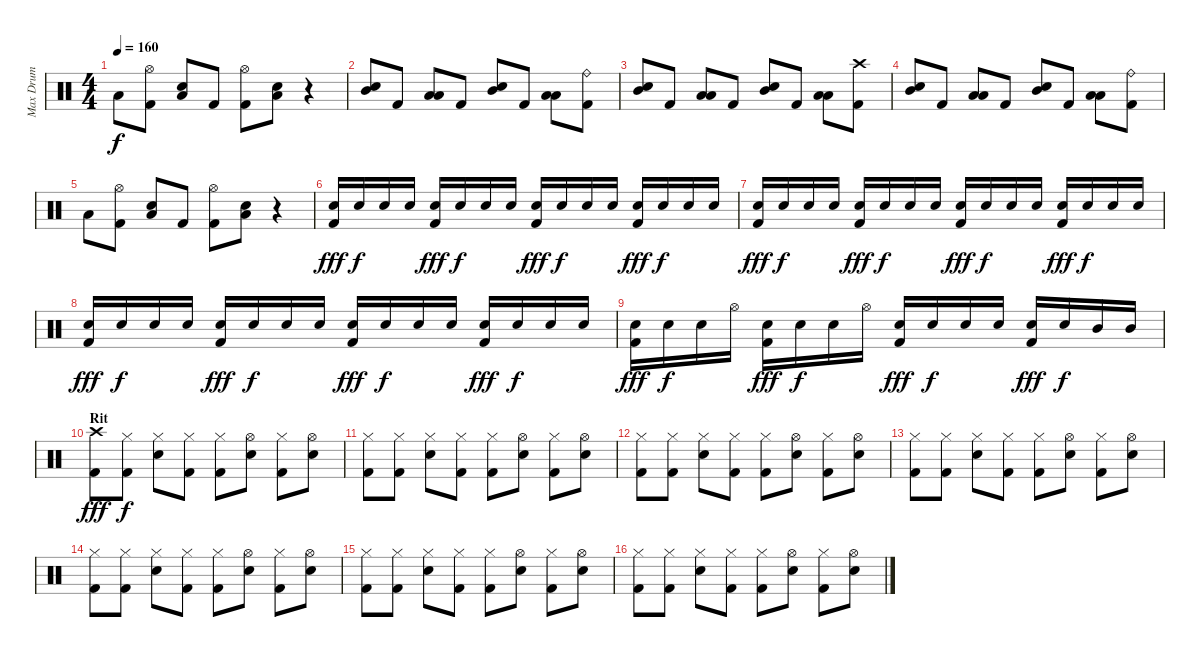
\track ("Max Drum" "Max Drum") {instrument percussion}
\staff {score}
\articulation defaults
\ts (4 4)
\tempo 160
\clef neutral
\ks c "Low Floor Tom (hit)".8{dy f}
("Hi-Hat (open)" "Kick (hit) 2").8 ("Snare (hit) 2" "Low Floor Tom (hit)").8 "Kick (hit) 2".8 ("Hi-Hat (open)" "Kick (hit) 2").8 ("Snare (hit) 2" "Low Floor Tom (hit)").8 r.4 |
("Mid Tom (hit)" "Snare (hit) 2").8 "Kick (hit) 2".8 ("Low Tom (hit)" "Low Floor Tom (hit)").8 "Kick (hit) 2".8 ("Mid Tom (hit)" "Snare (hit) 2").8 "Kick (hit) 2".8 ("Low Tom (hit)" "Low Floor Tom (hit)").8 ("Ride (bell)" "Kick (hit) 2").8 |
("Mid Tom (hit)" "Snare (hit) 2").8 "Kick (hit) 2".8 ("Low Tom (hit)" "Low Floor Tom (hit)").8 "Kick (hit) 2".8 ("Mid Tom (hit)" "Snare (hit) 2").8 "Kick (hit) 2".8 ("Low Tom (hit)" "Low Floor Tom (hit)").8 ("Crash high (hit)" "Kick (hit) 2").8 |
("Mid Tom (hit)" "Snare (hit) 2").8 "Kick (hit) 2".8 ("Low Tom (hit)" "Low Floor Tom (hit)").8 "Kick (hit) 2".8 ("Mid Tom (hit)" "Snare (hit) 2").8 "Kick (hit) 2".8 ("Low Tom (hit)" "Low Floor Tom (hit)").8 ("Ride (bell)" "Kick (hit) 2").8 |
"Low Floor Tom (hit)".8 ("Hi-Hat (open)" "Kick (hit) 2").8 ("Snare (hit) 2" "Low Floor Tom (hit)").8 "Kick (hit) 2".8 ("Hi-Hat (open)" "Kick (hit) 2").8 ("Snare (hit) 2" "Low Floor Tom (hit)").8 r.4 |
("Snare (hit) 2" "Kick (hit) 2").16{dy fff volume 0} "Snare (hit) 2".16{dy f volume 15} "Snare (hit) 2".16 "Snare (hit) 2".16 ("Snare (hit) 2" "Kick (hit) 2").16{dy fff} "Snare (hit) 2".16{dy f} "Snare (hit) 2".16 "Snare (hit) 2".16 ("Snare (hit) 2" "Kick (hit) 2").16{dy fff} "Snare (hit) 2".16{dy f} "Snare (hit) 2".16 "Snare (hit) 2".16 ("Snare (hit) 2" "Kick (hit) 2").16{dy fff} "Snare (hit) 2".16{dy f} "Snare (hit) 2".16 "Snare (hit) 2".16 |
("Snare (hit) 2" "Kick (hit) 2").16{dy fff} "Snare (hit) 2".16{dy f} "Snare (hit) 2".16 "Snare (hit) 2".16 ("Snare (hit) 2" "Kick (hit) 2").16{dy fff} "Snare (hit) 2".16{dy f} "Snare (hit) 2".16 "Snare (hit) 2".16 ("Snare (hit) 2" "Kick (hit) 2").16{dy fff} "Snare (hit) 2".16{dy f} "Snare (hit) 2".16 "Snare (hit) 2".16 ("Snare (hit) 2" "Kick (hit) 2").16{dy fff} "Snare (hit) 2".16{dy f} "Snare (hit) 2".16 "Snare (hit) 2".16 |
("Snare (hit) 2" "Kick (hit) 2").16{dy fff} "Snare (hit) 2".16{dy f} "Snare (hit) 2".16 "Snare (hit) 2".16 ("Snare (hit) 2" "Kick (hit) 2").16{dy fff} "Snare (hit) 2".16{dy f} "Snare (hit) 2".16 "Snare (hit) 2".16 ("Snare (hit) 2" "Kick (hit) 2").16{dy fff} "Snare (hit) 2".16{dy f} "Snare (hit) 2".16 "Snare (hit) 2".16 ("Snare (hit) 2" "Kick (hit) 2").16{dy fff} "Snare (hit) 2".16{dy f} "Snare (hit) 2".16 "Snare (hit) 2".16 |
("Snare (hit) 2" "Kick (hit) 2").16{dy fff} "Snare (hit) 2".16{dy f} "Snare (hit) 2".16 "Hi-Hat (open)".16 ("Snare (hit) 2" "Kick (hit) 2").16{dy fff} "Snare (hit) 2".16{dy f} "Snare (hit) 2".16 "Hi-Hat (open)".16 ("Snare (hit) 2" "Kick (hit) 2").16{dy fff} "Snare (hit) 2".16{dy f} "Snare (hit) 2".16 "Snare (hit) 2".16 ("Snare (hit) 2" "Kick (hit) 2").16{dy fff} "Snare (hit) 2".16{dy f} "Mid Tom (hit)".16 "Mid Tom (hit)".16 |
\section ("" "Rit")
("Crash high (hit)" "Kick (hit) 2").8{dy fff} ("Hi-Hat (closed)" "Kick (hit) 2").8{dy f} ("Hi-Hat (closed)" "Snare (hit) 2").8 ("Hi-Hat (closed)" "Kick (hit) 2").8 ("Hi-Hat (closed)" "Kick (hit) 2").8 ("Hi-Hat (open)" "Snare (hit) 2").8 ("Hi-Hat (closed)" "Kick (hit) 2").8 ("Hi-Hat (open)" "Snare (hit) 2").8 |
("Hi-Hat (closed)" "Kick (hit) 2").8 ("Hi-Hat (closed)" "Kick (hit) 2").8 ("Hi-Hat (closed)" "Snare (hit) 2").8 ("Hi-Hat (closed)" "Kick (hit) 2").8 ("Hi-Hat (closed)" "Kick (hit) 2").8 ("Hi-Hat (open)" "Snare (hit) 2").8 ("Hi-Hat (closed)" "Kick (hit) 2").8 ("Hi-Hat (open)" "Snare (hit) 2").8 |
("Hi-Hat (closed)" "Kick (hit) 2").8 ("Hi-Hat (closed)" "Kick (hit) 2").8 ("Hi-Hat (closed)" "Snare (hit) 2").8 ("Hi-Hat (closed)" "Kick (hit) 2").8 ("Hi-Hat (closed)" "Kick (hit) 2").8 ("Hi-Hat (open)" "Snare (hit) 2").8 ("Hi-Hat (closed)" "Kick (hit) 2").8 ("Hi-Hat (open)" "Snare (hit) 2").8 |
("Hi-Hat (closed)" "Kick (hit) 2").8 ("Hi-Hat (closed)" "Kick (hit) 2").8 ("Hi-Hat (closed)" "Snare (hit) 2").8 ("Hi-Hat (closed)" "Kick (hit) 2").8 ("Hi-Hat (closed)" "Kick (hit) 2").8 ("Hi-Hat (open)" "Snare (hit) 2").8 ("Hi-Hat (closed)" "Kick (hit) 2").8 ("Hi-Hat (open)" "Snare (hit) 2").8 |
("Hi-Hat (closed)" "Kick (hit) 2").8 ("Hi-Hat (closed)" "Kick (hit) 2").8 ("Hi-Hat (closed)" "Snare (hit) 2").8 ("Hi-Hat (closed)" "Kick (hit) 2").8 ("Hi-Hat (closed)" "Kick (hit) 2").8 ("Hi-Hat (open)" "Snare (hit) 2").8 ("Hi-Hat (closed)" "Kick (hit) 2").8 ("Hi-Hat (open)" "Snare (hit) 2").8 |
("Hi-Hat (closed)" "Kick (hit) 2").8 ("Hi-Hat (closed)" "Kick (hit) 2").8 ("Hi-Hat (closed)" "Snare (hit) 2").8 ("Hi-Hat (closed)" "Kick (hit) 2").8 ("Hi-Hat (closed)" "Kick (hit) 2").8 ("Hi-Hat (open)" "Snare (hit) 2").8 ("Hi-Hat (closed)" "Kick (hit) 2").8 ("Hi-Hat (open)" "Snare (hit) 2").8 |
("Hi-Hat (closed)" "Kick (hit) 2").8 ("Hi-Hat (closed)" "Kick (hit) 2").8 ("Hi-Hat (closed)" "Snare (hit) 2").8 ("Hi-Hat (closed)" "Kick (hit) 2").8 ("Hi-Hat (closed)" "Kick (hit) 2").8 ("Hi-Hat (open)" "Snare (hit) 2").8 ("Hi-Hat (closed)" "Kick (hit) 2").8 ("Hi-Hat (open)" "Snare (hit) 2").8
